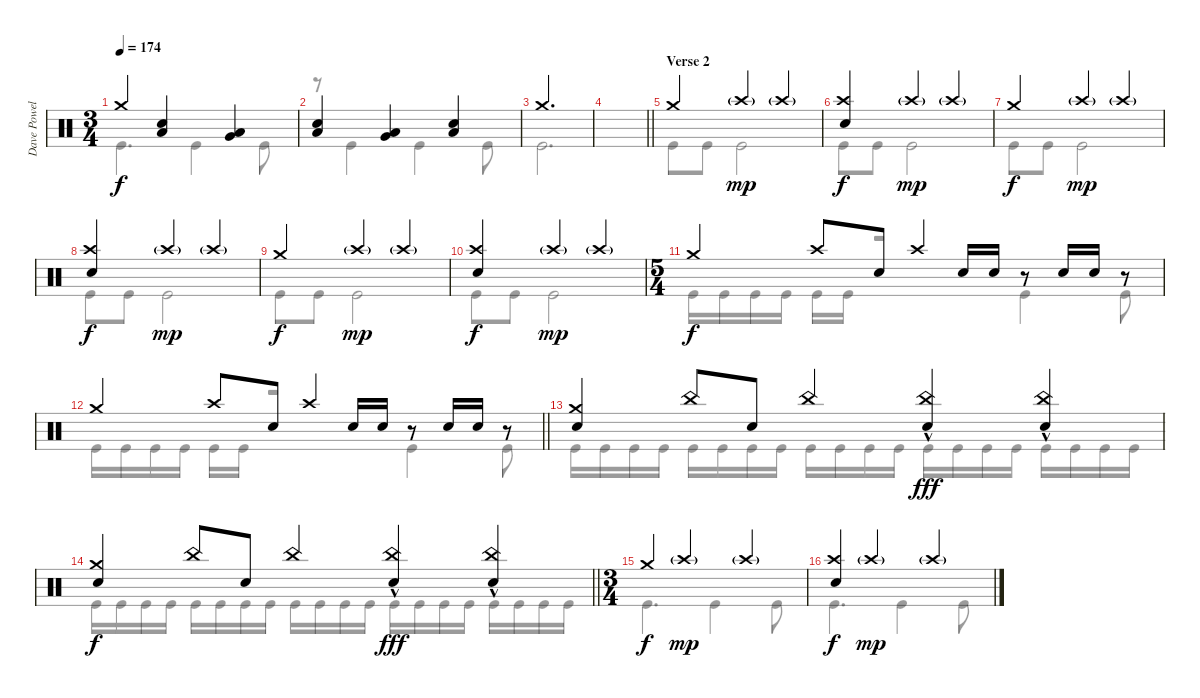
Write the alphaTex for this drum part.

\track ("Dave Powell" "Dave Powel") {instrument percussion}
\staff {score}
\articulation defaults
\voice
\ts (3 4)
\section ("" "")
\tempo 174
\clef neutral
\ks c "Crash medium (hit)".4{dy f}
("Low Tom (hit)" "Electric Snare (hit)").4 ("Low Tom (hit)" "Very Low Tom (hit)").4 |
("Low Tom (hit)" "Electric Snare (hit)").4 ("Low Tom (hit)" "Very Low Tom (hit)").4 ("Low Tom (hit)" "Electric Snare (hit)").4 |
"Crash medium (hit)".2{d} |
\barLineRight lightlight
|
\section ("" "Verse 2")
"Crash medium (hit)".4 "Crash high (hit)"{g}.4{dy mp} "Crash high (hit)"{g}.4 |
("Crash high (hit)" "Electric Snare (hit)").4{dy f} "Crash high (hit)"{g}.4{dy mp} "Crash high (hit)"{g}.4 |
"Crash medium (hit)".4{dy f} "Crash high (hit)"{g}.4{dy mp} "Crash high (hit)"{g}.4 |
("Crash high (hit)" "Electric Snare (hit)").4{dy f} "Crash high (hit)"{g}.4{dy mp} "Crash high (hit)"{g}.4 |
"Crash medium (hit)".4{dy f} "Crash high (hit)"{g}.4{dy mp} "Crash high (hit)"{g}.4 |
("Crash high (hit)" "Electric Snare (hit)").4{dy f} "Crash high (hit)"{g}.4{dy mp} "Crash high (hit)"{g}.4 |
\ts (5 4)
"Crash medium (hit)".4{dy f} "Crash high (hit)".8 "Electric Snare (hit)".8 "Crash high (hit)".4 "Electric Snare (hit)".16 "Electric Snare (hit)".16 r.8 "Electric Snare (hit)".16 "Electric Snare (hit)".16 r.8 |
\barLineRight lightlight "Crash medium (hit)".4 "Crash high (hit)".8 "Electric Snare (hit)".8 "Crash high (hit)".4 "Electric Snare (hit)".16 "Electric Snare (hit)".16
r.8 "Electric Snare (hit)".16 "Electric Snare (hit)".16 r.8 |
("Crash medium (hit)" "Electric Snare (hit)").4 "China (hit)".8 "Electric Snare (hit)".8 "China (hit)".4 ("China (hit)"{hac} "Electric Snare (hit)").4{dy fff} ("China (hit)"{hac} "Electric Snare (hit)").4 |
\barLineRight lightlight
("Crash medium (hit)" "Electric Snare (hit)").4{dy f} "China (hit)".8 "Electric Snare (hit)".8 "China (hit)".4 ("China (hit)"{hac} "Electric Snare (hit)").4{dy fff} ("China (hit)"{hac} "Electric Snare (hit)").4 |
\ts (3 4)
\section ("" "")
"Crash medium (hit)".4{dy f} "Crash high (hit)"{g}.4{dy mp} "Crash high (hit)"{g}.4 |
("Crash high (hit)" "Electric Snare (hit)").4{dy f} "Crash high (hit)"{g}.4{dy mp} "Crash high (hit)"{g}.4
\voice
\clef neutral
\ottava regular
\simile none
\ks c "Kick (hit)".4{d dy f} "Kick (hit)".4 "Kick (hit)".8
|
r.8 "Kick (hit)".4 "Kick (hit)".4 "Kick (hit)".8 |
"Kick (hit)".2{d} |
\barLineRight lightlight
|
"Kick (hit)".8 "Kick (hit)".8 "Kick (hit)".2 |
"Kick (hit)".8 "Kick (hit)".8 "Kick (hit)".2 |
"Kick (hit)".8 "Kick (hit)".8 "Kick (hit)".2 |
"Kick (hit)".8 "Kick (hit)".8 "Kick (hit)".2 |
"Kick (hit)".8 "Kick (hit)".8 "Kick (hit)".2 |
"Kick (hit)".8 "Kick (hit)".8 "Kick (hit)".2 |
"Kick (hit)".16 "Kick (hit)".16 "Kick (hit)".16 "Kick (hit)".16 "Kick (hit)".16 "Kick (hit)".16 r.2 "Kick (hit)".4 "Kick (hit)".8 |
\barLineRight lightlight "Kick (hit)".16 "Kick (hit)".16 "Kick (hit)".16 "Kick (hit)".16 "Kick (hit)".16 "Kick (hit)".16
r.2 "Kick (hit)".4 "Kick (hit)".8 |
"Kick (hit)".16 "Kick (hit)".16 "Kick (hit)".16 "Kick (hit)".16 "Kick (hit)".16 "Kick (hit)".16 "Kick (hit)".16 "Kick (hit)".16 "Kick (hit)".16 "Kick (hit)".16 "Kick (hit)".16 "Kick (hit)".16 "Kick (hit)".16 "Kick (hit)".16 "Kick (hit)".16 "Kick (hit)".16 "Kick (hit)".16 "Kick (hit)".16 "Kick (hit)".16 "Kick (hit)".16 |
\barLineRight lightlight "Kick (hit)".16 "Kick (hit)".16 "Kick (hit)".16 "Kick (hit)".16 "Kick (hit)".16 "Kick (hit)".16 "Kick (hit)".16 "Kick (hit)".16 "Kick (hit)".16 "Kick (hit)".16 "Kick (hit)".16 "Kick (hit)".16 "Kick (hit)".16 "Kick (hit)".16 "Kick (hit)".16 "Kick (hit)".16 "Kick (hit)".16 "Kick (hit)".16 "Kick (hit)".16 "Kick (hit)".16
|
"Kick (hit)".4{d} "Kick (hit)".4 "Kick (hit)".8 |
"Kick (hit)".4{d} "Kick (hit)".4 "Kick (hit)".8
